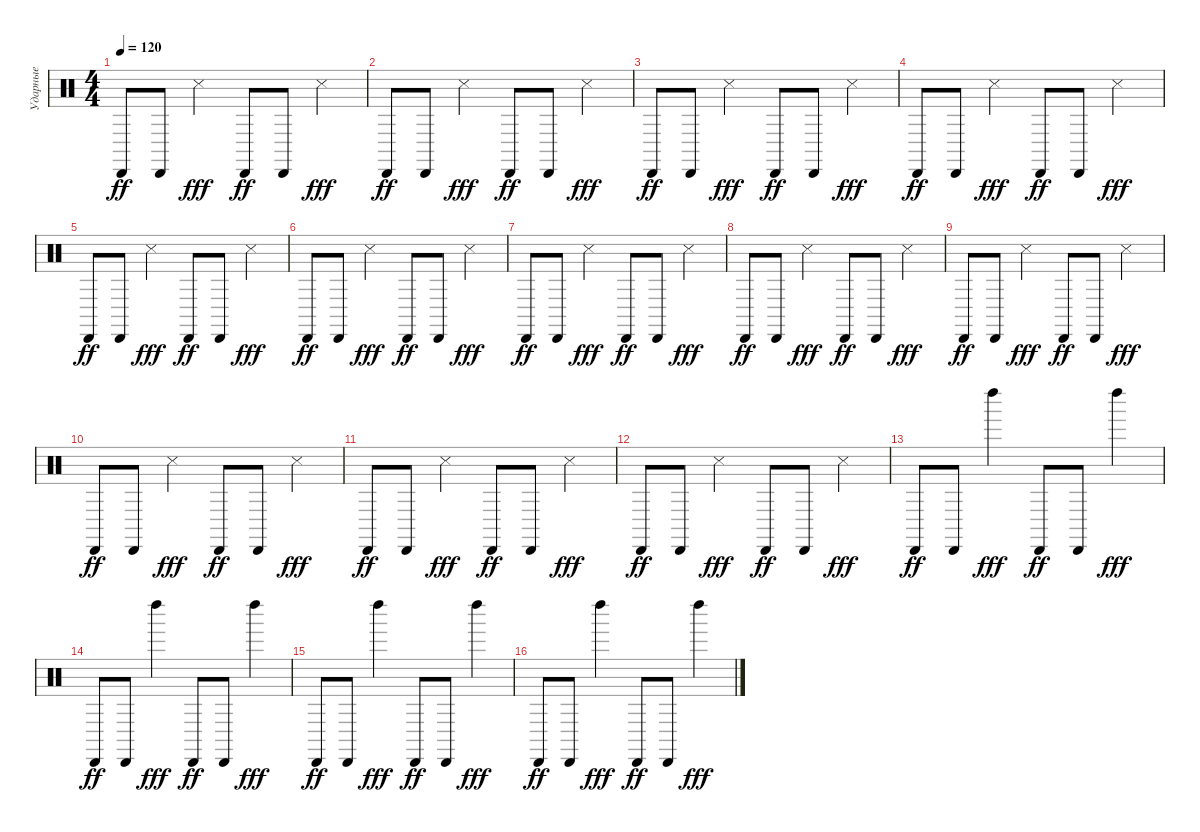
\track ("Ударные" "Ударные") {instrument percussion}
\staff {score}
\articulation defaults
\ts (4 4)
\tempo 120
\clef neutral
\ks c "Cabasa (hit)".8{dy ff} "Cabasa (hit)".8 "Snare (side stick) 3".4{dy fff} "Cabasa (hit)".8{dy ff} "Cabasa (hit)".8 "Snare (side stick) 3".4{dy fff}
|
"Cabasa (hit)".8{dy ff} "Cabasa (hit)".8 "Snare (side stick) 3".4{dy fff} "Cabasa (hit)".8{dy ff} "Cabasa (hit)".8 "Snare (side stick) 3".4{dy fff} |
"Cabasa (hit)".8{dy ff} "Cabasa (hit)".8 "Snare (side stick) 3".4{dy fff} "Cabasa (hit)".8{dy ff} "Cabasa (hit)".8 "Snare (side stick) 3".4{dy fff} |
"Cabasa (hit)".8{dy ff} "Cabasa (hit)".8 "Snare (side stick) 3".4{dy fff} "Cabasa (hit)".8{dy ff} "Cabasa (hit)".8 "Snare (side stick) 3".4{dy fff} |
"Cabasa (hit)".8{dy ff} "Cabasa (hit)".8 "Snare (side stick) 3".4{dy fff} "Cabasa (hit)".8{dy ff} "Cabasa (hit)".8 "Snare (side stick) 3".4{dy fff} |
"Cabasa (hit)".8{dy ff} "Cabasa (hit)".8 "Snare (side stick) 3".4{dy fff} "Cabasa (hit)".8{dy ff} "Cabasa (hit)".8 "Snare (side stick) 3".4{dy fff} |
"Cabasa (hit)".8{dy ff} "Cabasa (hit)".8 "Snare (side stick) 3".4{dy fff} "Cabasa (hit)".8{dy ff} "Cabasa (hit)".8 "Snare (side stick) 3".4{dy fff} |
"Cabasa (hit)".8{dy ff} "Cabasa (hit)".8 "Snare (side stick) 3".4{dy fff} "Cabasa (hit)".8{dy ff} "Cabasa (hit)".8 "Snare (side stick) 3".4{dy fff} |
"Cabasa (hit)".8{dy ff} "Cabasa (hit)".8 "Snare (side stick) 3".4{dy fff} "Cabasa (hit)".8{dy ff} "Cabasa (hit)".8 "Snare (side stick) 3".4{dy fff} |
"Cabasa (hit)".8{dy ff} "Cabasa (hit)".8 "Snare (side stick) 3".4{dy fff} "Cabasa (hit)".8{dy ff} "Cabasa (hit)".8 "Snare (side stick) 3".4{dy fff} |
"Cabasa (hit)".8{dy ff} "Cabasa (hit)".8 "Snare (side stick) 3".4{dy fff} "Cabasa (hit)".8{dy ff} "Cabasa (hit)".8 "Snare (side stick) 3".4{dy fff} |
"Cabasa (hit)".8{dy ff} "Cabasa (hit)".8 "Snare (side stick) 3".4{dy fff} "Cabasa (hit)".8{dy ff} "Cabasa (hit)".8 "Snare (side stick) 3".4{dy fff} |
"Cabasa (hit)".8{dy ff} "Cabasa (hit)".8 "Left Maraca (hit)".4{dy fff} "Cabasa (hit)".8{dy ff} "Cabasa (hit)".8 "Left Maraca (hit)".4{dy fff} |
"Cabasa (hit)".8{dy ff} "Cabasa (hit)".8 "Left Maraca (hit)".4{dy fff} "Cabasa (hit)".8{dy ff} "Cabasa (hit)".8 "Left Maraca (hit)".4{dy fff} |
"Cabasa (hit)".8{dy ff} "Cabasa (hit)".8 "Left Maraca (hit)".4{dy fff} "Cabasa (hit)".8{dy ff} "Cabasa (hit)".8 "Left Maraca (hit)".4{dy fff} |
"Cabasa (hit)".8{dy ff} "Cabasa (hit)".8 "Left Maraca (hit)".4{dy fff} "Cabasa (hit)".8{dy ff} "Cabasa (hit)".8 "Left Maraca (hit)".4{dy fff}
